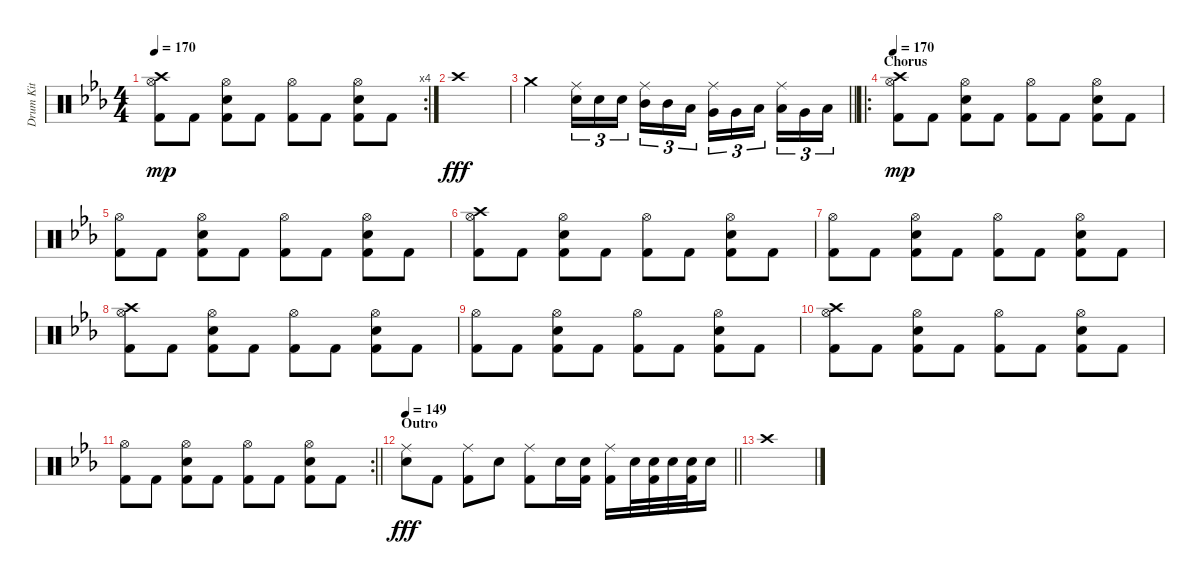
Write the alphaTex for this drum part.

\track ("Drum Kit" "Drum Kit") {instrument percussion}
\staff {score}
\articulation defaults
\rc 4
\ts (4 4)
\tempo 170
\clef neutral
\ks cminor
("Crash high (hit)" "Hi-Hat (open)" "Kick (hit) 2").8{dy mp} "Kick (hit) 2".8 ("Hi-Hat (open)" "Electric Snare (hit)" "Kick (hit) 2").8 "Kick (hit) 2".8 ("Hi-Hat (open)" "Kick (hit) 2").8 "Kick (hit) 2".8 ("Hi-Hat (open)" "Electric Snare (hit)" "Kick (hit) 2").8 "Kick (hit) 2".8 |
"Crash high (hit)".1{dy fff} |
\barLineRight lightlight "Crash medium (hit)".2
("Ride (middle)" "Electric Snare (hit)").16{tu (3 2)} "Electric Snare (hit)".16{tu (3 2)} "Electric Snare (hit)".16{tu (3 2)} ("Ride (middle)" "Mid Tom (hit)").16{tu (3 2)} "Mid Tom (hit)".16{tu (3 2)} "Low Tom (hit)".16{tu (3 2)} ("Ride (middle)" "Very Low Tom (hit)").16{tu (3 2)} "Very Low Tom (hit)".16{tu (3 2)} "Low Floor Tom (hit)".16{tu (3 2)} ("Ride (middle)" "Low Floor Tom (hit)").16{tu (3 2)} "Very Low Tom (hit)".16{tu (3 2)} "Low Floor Tom (hit)".16{tu (3 2)} |
\ro
\section ("" "Chorus")
\tempo 170
("Crash high (hit)" "Hi-Hat (open)" "Kick (hit) 2").8{dy mp} "Kick (hit) 2".8 ("Hi-Hat (open)" "Electric Snare (hit)" "Kick (hit) 2").8 "Kick (hit) 2".8 ("Hi-Hat (open)" "Kick (hit) 2").8 "Kick (hit) 2".8 ("Hi-Hat (open)" "Electric Snare (hit)" "Kick (hit) 2").8 "Kick (hit) 2".8 |
("Hi-Hat (open)" "Kick (hit) 2").8 "Kick (hit) 2".8 ("Hi-Hat (open)" "Electric Snare (hit)" "Kick (hit) 2").8 "Kick (hit) 2".8 ("Hi-Hat (open)" "Kick (hit) 2").8 "Kick (hit) 2".8 ("Hi-Hat (open)" "Electric Snare (hit)" "Kick (hit) 2").8 "Kick (hit) 2".8 |
("Crash high (hit)" "Hi-Hat (open)" "Kick (hit) 2").8 "Kick (hit) 2".8 ("Hi-Hat (open)" "Electric Snare (hit)" "Kick (hit) 2").8 "Kick (hit) 2".8 ("Hi-Hat (open)" "Kick (hit) 2").8 "Kick (hit) 2".8 ("Hi-Hat (open)" "Electric Snare (hit)" "Kick (hit) 2").8 "Kick (hit) 2".8 |
("Hi-Hat (open)" "Kick (hit) 2").8 "Kick (hit) 2".8 ("Hi-Hat (open)" "Electric Snare (hit)" "Kick (hit) 2").8 "Kick (hit) 2".8 ("Hi-Hat (open)" "Kick (hit) 2").8 "Kick (hit) 2".8 ("Hi-Hat (open)" "Electric Snare (hit)" "Kick (hit) 2").8 "Kick (hit) 2".8 |
("Crash high (hit)" "Hi-Hat (open)" "Kick (hit) 2").8 "Kick (hit) 2".8 ("Hi-Hat (open)" "Electric Snare (hit)" "Kick (hit) 2").8 "Kick (hit) 2".8 ("Hi-Hat (open)" "Kick (hit) 2").8 "Kick (hit) 2".8 ("Hi-Hat (open)" "Electric Snare (hit)" "Kick (hit) 2").8 "Kick (hit) 2".8 |
("Hi-Hat (open)" "Kick (hit) 2").8 "Kick (hit) 2".8 ("Hi-Hat (open)" "Electric Snare (hit)" "Kick (hit) 2").8 "Kick (hit) 2".8 ("Hi-Hat (open)" "Kick (hit) 2").8 "Kick (hit) 2".8 ("Hi-Hat (open)" "Electric Snare (hit)" "Kick (hit) 2").8 "Kick (hit) 2".8 |
("Crash high (hit)" "Hi-Hat (open)" "Kick (hit) 2").8 "Kick (hit) 2".8 ("Hi-Hat (open)" "Electric Snare (hit)" "Kick (hit) 2").8 "Kick (hit) 2".8 ("Hi-Hat (open)" "Kick (hit) 2").8 "Kick (hit) 2".8 ("Hi-Hat (open)" "Electric Snare (hit)" "Kick (hit) 2").8 "Kick (hit) 2".8 |
\rc 2
\barLineRight lightlight
("Hi-Hat (open)" "Kick (hit) 2").8 "Kick (hit) 2".8 ("Hi-Hat (open)" "Electric Snare (hit)" "Kick (hit) 2").8 "Kick (hit) 2".8 ("Hi-Hat (open)" "Kick (hit) 2").8 "Kick (hit) 2".8 ("Hi-Hat (open)" "Electric Snare (hit)" "Kick (hit) 2").8 "Kick (hit) 2".8 |
\section ("" "Outro")
\tempo 149
\barLineRight lightlight
("Ride (middle)" "Electric Snare (hit)").8{dy fff} "Kick (hit) 2".8 ("Ride (middle)" "Kick (hit) 2").8 "Electric Snare (hit)".8 ("Ride (middle)" "Kick (hit) 2").8 "Electric Snare (hit)".16 ("Electric Snare (hit)" "Kick (hit) 2").16 ("Ride (middle)" "Kick (hit) 2").16 "Electric Snare (hit)".32 ("Electric Snare (hit)" "Kick (hit) 2").32 "Electric Snare (hit)".32 ("Electric Snare (hit)" "Kick (hit) 2").32 "Electric Snare (hit)".16 |
"Crash high (hit)".1
